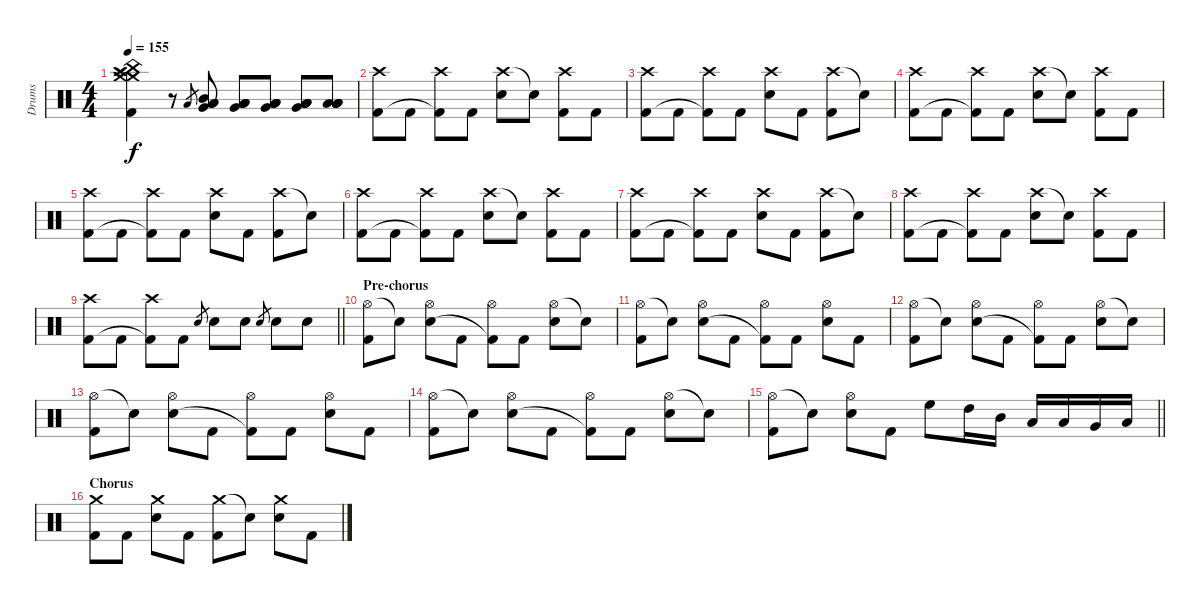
\track ("Drums" "Drums") {instrument percussion}
\staff {score}
\articulation defaults
\ts (4 4)
\tempo 155
\clef neutral
\ks c
("Crash medium (hit)" "Splash (hit)" "China (hit)" "Crash high (hit)" "Crash medium (hit)" "Kick (hit) 2").4{dy f} r.8 "Low Tom (hit)".8{gr} ("Mid Tom (hit)" "Low Tom (hit)" "Very Low Tom (hit)" "Low Floor Tom (hit)").8 ("Low Tom (hit)" "Very Low Tom (hit)" "Low Floor Tom (hit)" "Low Floor Tom (hit)").8 ("Low Tom (hit)" "Very Low Tom (hit)" "Low Floor Tom (hit)" "Low Floor Tom (hit)").8 ("Very Low Tom (hit)" "Low Floor Tom (hit)" "Low Floor Tom (hit)" "Low Floor Tom (hit)").8 ("Low Floor Tom (hit)" "Low Floor Tom (hit)" "Low Floor Tom (hit)" "Low Floor Tom (hit)").8 |
("Crash high (hit)" "Kick (hit) 2").8 "Kick (hit) 2".8 ("Crash high (hit)" "Kick (hit) 2"{t}).8 "Kick (hit) 2".8 ("Crash high (hit)" "Electric Snare (hit)").8 "Snare (hit)"{t}.8 ("Crash high (hit)" "Kick (hit) 2").8 "Kick (hit) 2".8 |
("Crash high (hit)" "Kick (hit) 2").8 "Kick (hit) 2".8 ("Crash high (hit)" "Kick (hit) 2"{t}).8 "Kick (hit) 2".8 ("Crash high (hit)" "Electric Snare (hit)").8 "Kick (hit) 2".8 ("Crash high (hit)" "Kick (hit) 2").8 "Snare (hit)"{t}.8 |
("Crash high (hit)" "Kick (hit) 2").8 "Kick (hit) 2".8 ("Crash high (hit)" "Kick (hit) 2"{t}).8 "Kick (hit) 2".8 ("Crash high (hit)" "Electric Snare (hit)").8 "Snare (hit)"{t}.8 ("Crash high (hit)" "Kick (hit) 2").8 "Kick (hit) 2".8 |
("Crash high (hit)" "Kick (hit) 2").8 "Kick (hit) 2".8 ("Crash high (hit)" "Kick (hit) 2"{t}).8 "Kick (hit) 2".8 ("Crash high (hit)" "Electric Snare (hit)").8 "Kick (hit) 2".8 ("Crash high (hit)" "Kick (hit) 2").8 "Snare (hit)"{t}.8 |
("Crash high (hit)" "Kick (hit) 2").8 "Kick (hit) 2".8 ("Crash high (hit)" "Kick (hit) 2"{t}).8 "Kick (hit) 2".8 ("Crash high (hit)" "Electric Snare (hit)").8 "Snare (hit)"{t}.8 ("Crash high (hit)" "Kick (hit) 2").8 "Kick (hit) 2".8 |
("Crash high (hit)" "Kick (hit) 2").8 "Kick (hit) 2".8 ("Crash high (hit)" "Kick (hit) 2"{t}).8 "Kick (hit) 2".8 ("Crash high (hit)" "Electric Snare (hit)").8 "Kick (hit) 2".8 ("Crash high (hit)" "Kick (hit) 2").8 "Snare (hit)"{t}.8 |
("Crash high (hit)" "Kick (hit) 2").8 "Kick (hit) 2".8 ("Crash high (hit)" "Kick (hit) 2"{t}).8 "Kick (hit) 2".8 ("Crash high (hit)" "Electric Snare (hit)").8 "Snare (hit)"{t}.8 ("Crash high (hit)" "Kick (hit) 2").8 "Kick (hit) 2".8 |
\barLineRight lightlight
("Crash high (hit)" "Kick (hit) 2").8 "Kick (hit) 2".8 ("Crash high (hit)" "Kick (hit) 2"{t}).8 "Kick (hit) 2".8 "Electric Snare (hit)".8{gr} "Electric Snare (hit)".8 "Electric Snare (hit)".8 "Electric Snare (hit)".8{gr} "Electric Snare (hit)".8 "Electric Snare (hit)".8 |
\section ("" "Pre-chorus")
("Hi-Hat (open)" "Kick (hit) 2").8 "Snare (hit)"{t}.8 ("Hi-Hat (open)" "Electric Snare (hit)").8 "Kick (hit) 2".8 ("Hi-Hat (open)" "Kick (hit) 2"{t}).8 "Kick (hit) 2".8 ("Hi-Hat (open)" "Electric Snare (hit)").8 "Snare (hit)"{t}.8 |
("Hi-Hat (open)" "Kick (hit) 2").8 "Snare (hit)"{t}.8 ("Hi-Hat (open)" "Electric Snare (hit)").8 "Kick (hit) 2".8 ("Hi-Hat (open)" "Kick (hit) 2"{t}).8 "Kick (hit) 2".8 ("Hi-Hat (open)" "Electric Snare (hit)").8 "Kick (hit) 2".8 |
("Hi-Hat (open)" "Kick (hit) 2").8 "Snare (hit)"{t}.8 ("Hi-Hat (open)" "Electric Snare (hit)").8 "Kick (hit) 2".8 ("Hi-Hat (open)" "Kick (hit) 2"{t}).8 "Kick (hit) 2".8 ("Hi-Hat (open)" "Electric Snare (hit)").8 "Snare (hit)"{t}.8 |
("Hi-Hat (open)" "Kick (hit) 2").8 "Snare (hit)"{t}.8 ("Hi-Hat (open)" "Electric Snare (hit)").8 "Kick (hit) 2".8 ("Hi-Hat (open)" "Kick (hit) 2"{t}).8 "Kick (hit) 2".8 ("Hi-Hat (open)" "Electric Snare (hit)").8 "Kick (hit) 2".8 |
("Hi-Hat (open)" "Kick (hit) 2").8 "Snare (hit)"{t}.8 ("Hi-Hat (open)" "Electric Snare (hit)").8 "Kick (hit) 2".8 ("Hi-Hat (open)" "Kick (hit) 2"{t}).8 "Kick (hit) 2".8 ("Hi-Hat (open)" "Electric Snare (hit)").8 "Snare (hit)"{t}.8 |
\barLineRight lightlight
("Hi-Hat (open)" "Kick (hit) 2").8 "Snare (hit)"{t}.8 ("Hi-Hat (open)" "Electric Snare (hit)").8 "Kick (hit) 2".8 "High Floor Tom (hit)".8 "High Tom (hit)".16 "Mid Tom (hit)".16 "Low Tom (hit)".16 "Low Tom (hit)".16 "Very Low Tom (hit)".16 "Low Floor Tom (hit)".16 |
\section ("" "Chorus")
("Crash medium (hit)" "Kick (hit) 2").8 "Kick (hit) 2".8 ("Crash medium (hit)" "Electric Snare (hit)").8 "Kick (hit) 2".8 ("Crash medium (hit)" "Kick (hit) 2").8 "Snare (hit)"{t}.8 ("Crash medium (hit)" "Electric Snare (hit)").8 "Kick (hit) 2".8
